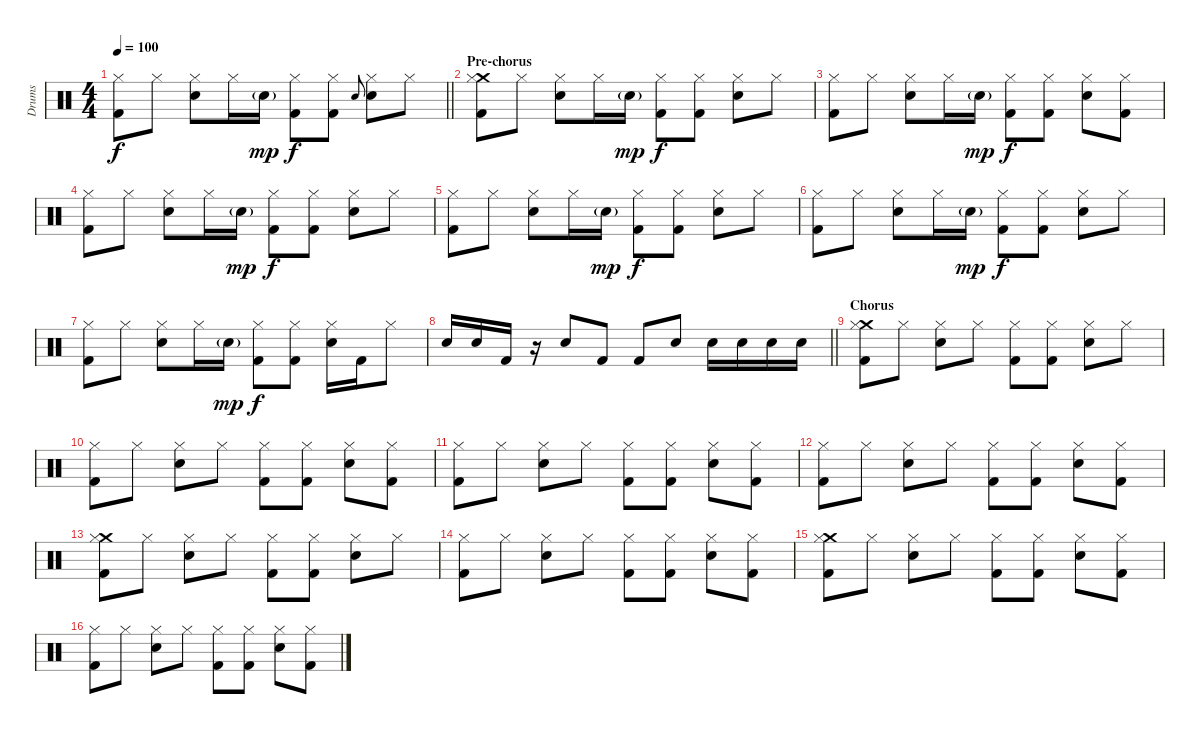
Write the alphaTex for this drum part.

\track ("Drums" "Drums") {instrument percussion}
\staff {score}
\articulation defaults
\ts (4 4)
\tempo 100
\clef neutral
\barLineRight lightlight
\ks c
("Kick (hit) 2" "Hi-Hat (closed)").8{dy f} "Hi-Hat (closed)".8 ("Electric Snare (hit)" "Hi-Hat (closed)").8 "Hi-Hat (closed)".16 "Electric Snare (hit)"{g}.16{dy mp} ("Kick (hit) 2" "Hi-Hat (closed)").8{dy f} ("Kick (hit) 2" "Hi-Hat (closed)").8 "Electric Snare (hit)".8{gr onbeat} ("Electric Snare (hit)" "Hi-Hat (closed)").8 "Hi-Hat (closed)".8 |
\section ("" "Pre-chorus ")
("Crash medium (hit)" "Kick (hit) 2" "Hi-Hat (closed)").8 "Hi-Hat (closed)".8 ("Electric Snare (hit)" "Hi-Hat (closed)").8 "Hi-Hat (closed)".16 "Electric Snare (hit)"{g}.16{dy mp} ("Kick (hit) 2" "Hi-Hat (closed)").8{dy f} ("Kick (hit) 2" "Hi-Hat (closed)").8 ("Electric Snare (hit)" "Hi-Hat (closed)").8 "Hi-Hat (closed)".8 |
("Kick (hit) 2" "Hi-Hat (closed)").8 "Hi-Hat (closed)".8 ("Electric Snare (hit)" "Hi-Hat (closed)").8 "Hi-Hat (closed)".16 "Electric Snare (hit)"{g}.16{dy mp} ("Kick (hit) 2" "Hi-Hat (closed)").8{dy f} ("Kick (hit) 2" "Hi-Hat (closed)").8 ("Electric Snare (hit)" "Hi-Hat (closed)").8 ("Kick (hit) 2" "Hi-Hat (closed)").8 |
("Kick (hit) 2" "Hi-Hat (closed)").8 "Hi-Hat (closed)".8 ("Electric Snare (hit)" "Hi-Hat (closed)").8 "Hi-Hat (closed)".16 "Electric Snare (hit)"{g}.16{dy mp} ("Kick (hit) 2" "Hi-Hat (closed)").8{dy f} ("Kick (hit) 2" "Hi-Hat (closed)").8 ("Electric Snare (hit)" "Hi-Hat (closed)").8 "Hi-Hat (closed)".8 |
("Kick (hit) 2" "Hi-Hat (closed)").8 "Hi-Hat (closed)".8 ("Electric Snare (hit)" "Hi-Hat (closed)").8 "Hi-Hat (closed)".16 "Electric Snare (hit)"{g}.16{dy mp} ("Kick (hit) 2" "Hi-Hat (closed)").8{dy f} ("Kick (hit) 2" "Hi-Hat (closed)").8 ("Electric Snare (hit)" "Hi-Hat (closed)").8 "Hi-Hat (closed)".8 |
("Kick (hit) 2" "Hi-Hat (closed)").8 "Hi-Hat (closed)".8 ("Electric Snare (hit)" "Hi-Hat (closed)").8 "Hi-Hat (closed)".16 "Electric Snare (hit)"{g}.16{dy mp} ("Kick (hit) 2" "Hi-Hat (closed)").8{dy f} ("Kick (hit) 2" "Hi-Hat (closed)").8 ("Electric Snare (hit)" "Hi-Hat (closed)").8 "Hi-Hat (closed)".8 |
("Kick (hit) 2" "Hi-Hat (closed)").8 "Hi-Hat (closed)".8 ("Electric Snare (hit)" "Hi-Hat (closed)").8 "Hi-Hat (closed)".16 "Electric Snare (hit)"{g}.16{dy mp} ("Kick (hit) 2" "Hi-Hat (closed)").8{dy f} ("Kick (hit) 2" "Hi-Hat (closed)").8 ("Electric Snare (hit)" "Hi-Hat (closed)").16 "Kick (hit) 2".16 "Hi-Hat (closed)".8 |
\barLineRight lightlight "Electric Snare (hit)".16 "Electric Snare (hit)".16 "Kick (hit) 2".16
r.16 "Electric Snare (hit)".8 "Kick (hit) 2".8 "Kick (hit) 2".8 "Electric Snare (hit)".8 "Electric Snare (hit)".16 "Electric Snare (hit)".16 "Electric Snare (hit)".16 "Electric Snare (hit)".16 |
\section ("" "Chorus")
("Crash medium (hit)" "Kick (hit) 2" "Hi-Hat (closed)").8 "Hi-Hat (closed)".8 ("Electric Snare (hit)" "Hi-Hat (closed)").8 "Hi-Hat (closed)".8 ("Kick (hit) 2" "Hi-Hat (closed)").8 ("Kick (hit) 2" "Hi-Hat (closed)").8 ("Electric Snare (hit)" "Hi-Hat (closed)").8 "Hi-Hat (closed)".8 |
("Kick (hit) 2" "Hi-Hat (closed)").8 "Hi-Hat (closed)".8 ("Electric Snare (hit)" "Hi-Hat (closed)").8 "Hi-Hat (closed)".8 ("Kick (hit) 2" "Hi-Hat (closed)").8 ("Kick (hit) 2" "Hi-Hat (closed)").8 ("Electric Snare (hit)" "Hi-Hat (closed)").8 ("Kick (hit) 2" "Hi-Hat (closed)").8 |
("Kick (hit) 2" "Hi-Hat (closed)").8 "Hi-Hat (closed)".8 ("Electric Snare (hit)" "Hi-Hat (closed)").8 "Hi-Hat (closed)".8 ("Kick (hit) 2" "Hi-Hat (closed)").8 ("Kick (hit) 2" "Hi-Hat (closed)").8 ("Electric Snare (hit)" "Hi-Hat (closed)").8 ("Kick (hit) 2" "Hi-Hat (closed)").8 |
("Kick (hit) 2" "Hi-Hat (closed)").8 "Hi-Hat (closed)".8 ("Electric Snare (hit)" "Hi-Hat (closed)").8 "Hi-Hat (closed)".8 ("Kick (hit) 2" "Hi-Hat (closed)").8 ("Kick (hit) 2" "Hi-Hat (closed)").8 ("Electric Snare (hit)" "Hi-Hat (closed)").8 ("Kick (hit) 2" "Hi-Hat (closed)").8 |
("Crash medium (hit)" "Kick (hit) 2" "Hi-Hat (closed)").8 "Hi-Hat (closed)".8 ("Electric Snare (hit)" "Hi-Hat (closed)").8 "Hi-Hat (closed)".8 ("Kick (hit) 2" "Hi-Hat (closed)").8 ("Kick (hit) 2" "Hi-Hat (closed)").8 ("Electric Snare (hit)" "Hi-Hat (closed)").8 "Hi-Hat (closed)".8 |
("Kick (hit) 2" "Hi-Hat (closed)").8 "Hi-Hat (closed)".8 ("Electric Snare (hit)" "Hi-Hat (closed)").8 "Hi-Hat (closed)".8 ("Kick (hit) 2" "Hi-Hat (closed)").8 ("Kick (hit) 2" "Hi-Hat (closed)").8 ("Electric Snare (hit)" "Hi-Hat (closed)").8 ("Kick (hit) 2" "Hi-Hat (closed)").8 |
("Crash medium (hit)" "Kick (hit) 2" "Hi-Hat (closed)").8 "Hi-Hat (closed)".8 ("Electric Snare (hit)" "Hi-Hat (closed)").8 "Hi-Hat (closed)".8 ("Kick (hit) 2" "Hi-Hat (closed)").8 ("Kick (hit) 2" "Hi-Hat (closed)").8 ("Electric Snare (hit)" "Hi-Hat (closed)").8 ("Kick (hit) 2" "Hi-Hat (closed)").8 |
("Kick (hit) 2" "Hi-Hat (closed)").8 "Hi-Hat (closed)".8 ("Electric Snare (hit)" "Hi-Hat (closed)").8 "Hi-Hat (closed)".8 ("Kick (hit) 2" "Hi-Hat (closed)").8 ("Kick (hit) 2" "Hi-Hat (closed)").8 ("Electric Snare (hit)" "Hi-Hat (closed)").8 ("Kick (hit) 2" "Hi-Hat (closed)").8
